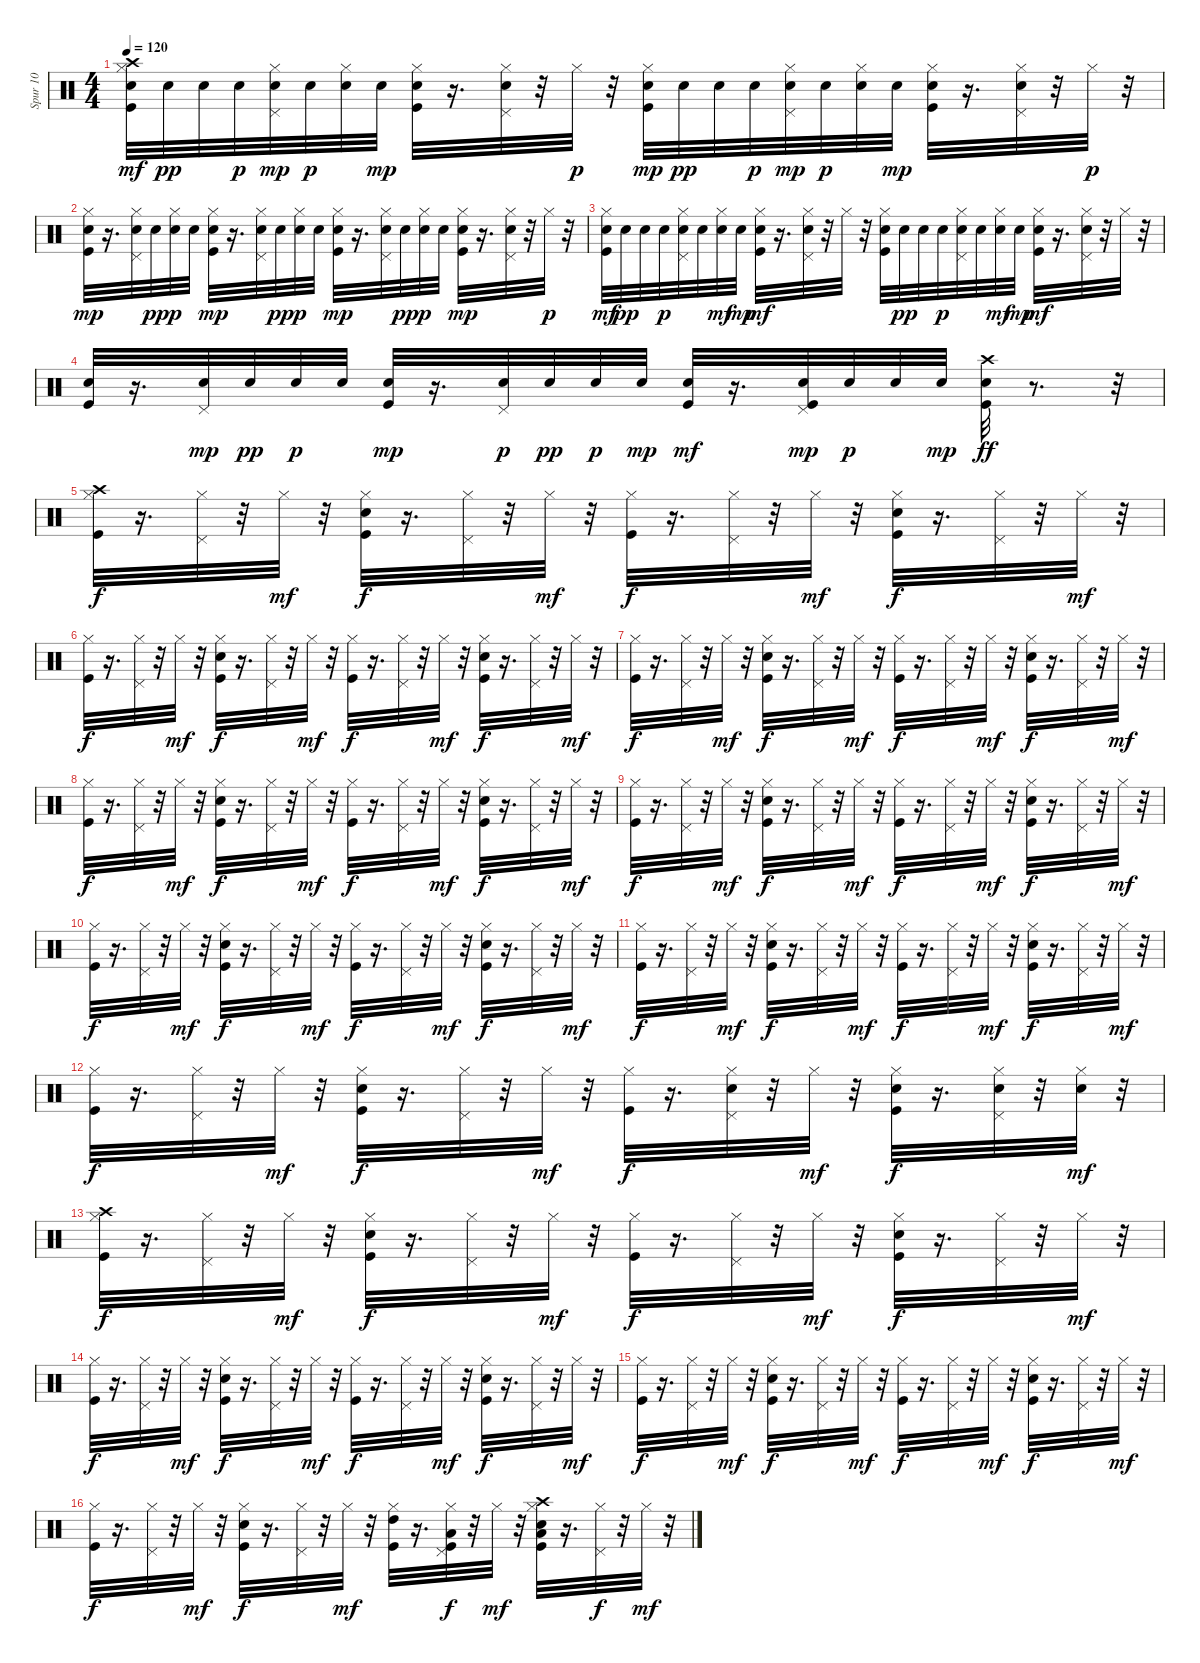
\track ("Spur 10" "Spur 10") {instrument percussion}
\staff {score}
\articulation defaults
\ts (4 4)
\tempo 120
\clef neutral
\ks c
("Kick (hit)" "Snare (hit) 2" "Hi-Hat (closed)" "Crash high (hit)").32{dy mf} "Snare (hit) 2".32{dy pp} "Snare (hit) 2".32 "Snare (hit) 2".32{dy p} ("Snare (hit) 2" "Hi-Hat (closed)" "Pedal Hi-Hat (hit)").32{dy mp} "Snare (hit) 2".32{dy p} ("Snare (hit) 2" "Hi-Hat (closed)").32 "Snare (hit) 2".32{dy mp} ("Kick (hit)" "Snare (hit) 2" "Hi-Hat (closed)").32 r.16{d} ("Snare (hit) 2" "Hi-Hat (closed)" "Pedal Hi-Hat (hit)").32 r.32 "Hi-Hat (closed)".32{dy p} r.32 ("Kick (hit)" "Snare (hit) 2" "Hi-Hat (closed)").32{dy mp} "Snare (hit) 2".32{dy pp} "Snare (hit) 2".32 "Snare (hit) 2".32{dy p} ("Snare (hit) 2" "Hi-Hat (closed)" "Pedal Hi-Hat (hit)").32{dy mp} "Snare (hit) 2".32{dy p} ("Snare (hit) 2" "Hi-Hat (closed)").32 "Snare (hit) 2".32{dy mp} ("Kick (hit)" "Snare (hit) 2" "Hi-Hat (closed)").32 r.16{d} ("Snare (hit) 2" "Hi-Hat (closed)" "Pedal Hi-Hat (hit)").32 r.32 "Hi-Hat (closed)".32{dy p} r.32 |
("Kick (hit)" "Snare (hit) 2" "Hi-Hat (closed)").32{dy mp} r.16{d} ("Snare (hit) 2" "Hi-Hat (closed)" "Pedal Hi-Hat (hit)").32 "Snare (hit) 2".32{dy pp} ("Snare (hit) 2" "Hi-Hat (closed)").32{dy p} "Snare (hit) 2".32 ("Kick (hit)" "Snare (hit) 2" "Hi-Hat (closed)").32{dy mp} r.16{d} ("Snare (hit) 2" "Hi-Hat (closed)" "Pedal Hi-Hat (hit)").32 "Snare (hit) 2".32{dy pp} ("Snare (hit) 2" "Hi-Hat (closed)").32{dy p} "Snare (hit) 2".32 ("Kick (hit)" "Snare (hit) 2" "Hi-Hat (closed)").32{dy mp} r.16{d} ("Snare (hit) 2" "Hi-Hat (closed)" "Pedal Hi-Hat (hit)").32 "Snare (hit) 2".32{dy pp} ("Snare (hit) 2" "Hi-Hat (closed)").32{dy p} "Snare (hit) 2".32 ("Kick (hit)" "Snare (hit) 2" "Hi-Hat (closed)").32{dy mp} r.16{d} ("Snare (hit) 2" "Hi-Hat (closed)" "Pedal Hi-Hat (hit)").32 r.32 "Hi-Hat (closed)".32{dy p} r.32 |
("Kick (hit)" "Snare (hit) 2" "Hi-Hat (closed)").32{dy mf} "Snare (hit) 2".32{dy pp} "Snare (hit) 2".32 "Snare (hit) 2".32{dy p} ("Snare (hit) 2" "Hi-Hat (closed)" "Pedal Hi-Hat (hit)").32 "Snare (hit) 2".32 ("Snare (hit) 2" "Hi-Hat (closed)").32{dy mf} "Snare (hit) 2".32{dy mp} ("Kick (hit)" "Snare (hit) 2" "Hi-Hat (closed)").32{dy mf} r.16{d} ("Snare (hit) 2" "Hi-Hat (closed)" "Pedal Hi-Hat (hit)").32 r.32 "Hi-Hat (closed)".32 r.32 ("Kick (hit)" "Snare (hit) 2" "Hi-Hat (closed)").32 "Snare (hit) 2".32{dy pp} "Snare (hit) 2".32 "Snare (hit) 2".32{dy p} ("Snare (hit) 2" "Hi-Hat (closed)" "Pedal Hi-Hat (hit)").32 "Snare (hit) 2".32 ("Snare (hit) 2" "Hi-Hat (closed)").32{dy mf} "Snare (hit) 2".32{dy mp} ("Kick (hit)" "Snare (hit) 2" "Hi-Hat (closed)").32{dy mf} r.16{d} ("Snare (hit) 2" "Hi-Hat (closed)" "Pedal Hi-Hat (hit)").32 r.32 "Hi-Hat (closed)".32 r.32 |
("Kick (hit)" "Snare (hit) 2").32 r.16{d} ("Snare (hit) 2" "Pedal Hi-Hat (hit)").32{dy mp} "Snare (hit) 2".32{dy pp} "Snare (hit) 2".32{dy p} "Snare (hit) 2".32 ("Kick (hit)" "Snare (hit) 2").32{dy mp} r.16{d} ("Snare (hit) 2" "Pedal Hi-Hat (hit)").32{dy p} "Snare (hit) 2".32{dy pp} "Snare (hit) 2".32{dy p} "Snare (hit) 2".32{dy mp} ("Kick (hit)" "Snare (hit) 2").32{dy mf} r.16{d} ("Kick (hit)" "Snare (hit) 2" "Pedal Hi-Hat (hit)").32{dy mp} "Snare (hit) 2".32{dy p} "Snare (hit) 2".32 "Snare (hit) 2".32{dy mp} ("Kick (hit)" "Snare (hit) 2" "Crash high (hit)").32{dy ff} r.8{d} r.32 |
("Kick (hit)" "Hi-Hat (closed)" "Crash high (hit)").32{dy f} r.16{d} ("Hi-Hat (closed)" "Pedal Hi-Hat (hit)").32 r.32 "Hi-Hat (closed)".32{dy mf} r.32 ("Kick (hit)" "Snare (hit) 2" "Hi-Hat (closed)").32{dy f} r.16{d} ("Hi-Hat (closed)" "Pedal Hi-Hat (hit)").32 r.32 "Hi-Hat (closed)".32{dy mf} r.32 ("Kick (hit)" "Hi-Hat (closed)").32{dy f} r.16{d} ("Hi-Hat (closed)" "Pedal Hi-Hat (hit)").32 r.32 "Hi-Hat (closed)".32{dy mf} r.32 ("Kick (hit)" "Snare (hit) 2" "Hi-Hat (closed)").32{dy f} r.16{d} ("Hi-Hat (closed)" "Pedal Hi-Hat (hit)").32 r.32 "Hi-Hat (closed)".32{dy mf} r.32 |
("Kick (hit)" "Hi-Hat (closed)").32{dy f} r.16{d} ("Hi-Hat (closed)" "Pedal Hi-Hat (hit)").32 r.32 "Hi-Hat (closed)".32{dy mf} r.32 ("Kick (hit)" "Snare (hit) 2" "Hi-Hat (closed)").32{dy f} r.16{d} ("Hi-Hat (closed)" "Pedal Hi-Hat (hit)").32 r.32 "Hi-Hat (closed)".32{dy mf} r.32 ("Kick (hit)" "Hi-Hat (closed)").32{dy f} r.16{d} ("Hi-Hat (closed)" "Pedal Hi-Hat (hit)").32 r.32 "Hi-Hat (closed)".32{dy mf} r.32 ("Kick (hit)" "Snare (hit) 2" "Hi-Hat (closed)").32{dy f} r.16{d} ("Hi-Hat (closed)" "Pedal Hi-Hat (hit)").32 r.32 "Hi-Hat (closed)".32{dy mf} r.32 |
("Kick (hit)" "Hi-Hat (closed)").32{dy f} r.16{d} ("Hi-Hat (closed)" "Pedal Hi-Hat (hit)").32 r.32 "Hi-Hat (closed)".32{dy mf} r.32 ("Kick (hit)" "Snare (hit) 2" "Hi-Hat (closed)").32{dy f} r.16{d} ("Hi-Hat (closed)" "Pedal Hi-Hat (hit)").32 r.32 "Hi-Hat (closed)".32{dy mf} r.32 ("Kick (hit)" "Hi-Hat (closed)").32{dy f} r.16{d} ("Hi-Hat (closed)" "Pedal Hi-Hat (hit)").32 r.32 "Hi-Hat (closed)".32{dy mf} r.32 ("Kick (hit)" "Snare (hit) 2" "Hi-Hat (closed)").32{dy f} r.16{d} ("Hi-Hat (closed)" "Pedal Hi-Hat (hit)").32 r.32 "Hi-Hat (closed)".32{dy mf} r.32 |
("Kick (hit)" "Hi-Hat (closed)").32{dy f} r.16{d} ("Hi-Hat (closed)" "Pedal Hi-Hat (hit)").32 r.32 "Hi-Hat (closed)".32{dy mf} r.32 ("Kick (hit)" "Snare (hit) 2" "Hi-Hat (closed)").32{dy f} r.16{d} ("Hi-Hat (closed)" "Pedal Hi-Hat (hit)").32 r.32 "Hi-Hat (closed)".32{dy mf} r.32 ("Kick (hit)" "Hi-Hat (closed)").32{dy f} r.16{d} ("Hi-Hat (closed)" "Pedal Hi-Hat (hit)").32 r.32 "Hi-Hat (closed)".32{dy mf} r.32 ("Kick (hit)" "Snare (hit) 2" "Hi-Hat (closed)").32{dy f} r.16{d} ("Hi-Hat (closed)" "Pedal Hi-Hat (hit)").32 r.32 "Hi-Hat (closed)".32{dy mf} r.32 |
("Kick (hit)" "Hi-Hat (closed)").32{dy f} r.16{d} ("Hi-Hat (closed)" "Pedal Hi-Hat (hit)").32 r.32 "Hi-Hat (closed)".32{dy mf} r.32 ("Kick (hit)" "Snare (hit) 2" "Hi-Hat (closed)").32{dy f} r.16{d} ("Hi-Hat (closed)" "Pedal Hi-Hat (hit)").32 r.32 "Hi-Hat (closed)".32{dy mf} r.32 ("Kick (hit)" "Hi-Hat (closed)").32{dy f} r.16{d} ("Hi-Hat (closed)" "Pedal Hi-Hat (hit)").32 r.32 "Hi-Hat (closed)".32{dy mf} r.32 ("Kick (hit)" "Snare (hit) 2" "Hi-Hat (closed)").32{dy f} r.16{d} ("Hi-Hat (closed)" "Pedal Hi-Hat (hit)").32 r.32 "Hi-Hat (closed)".32{dy mf} r.32 |
("Kick (hit)" "Hi-Hat (closed)").32{dy f} r.16{d} ("Hi-Hat (closed)" "Pedal Hi-Hat (hit)").32 r.32 "Hi-Hat (closed)".32{dy mf} r.32 ("Kick (hit)" "Snare (hit) 2" "Hi-Hat (closed)").32{dy f} r.16{d} ("Hi-Hat (closed)" "Pedal Hi-Hat (hit)").32 r.32 "Hi-Hat (closed)".32{dy mf} r.32 ("Kick (hit)" "Hi-Hat (closed)").32{dy f} r.16{d} ("Hi-Hat (closed)" "Pedal Hi-Hat (hit)").32 r.32 "Hi-Hat (closed)".32{dy mf} r.32 ("Kick (hit)" "Snare (hit) 2" "Hi-Hat (closed)").32{dy f} r.16{d} ("Hi-Hat (closed)" "Pedal Hi-Hat (hit)").32 r.32 "Hi-Hat (closed)".32{dy mf} r.32 |
("Kick (hit)" "Hi-Hat (closed)").32{dy f} r.16{d} ("Hi-Hat (closed)" "Pedal Hi-Hat (hit)").32 r.32 "Hi-Hat (closed)".32{dy mf} r.32 ("Kick (hit)" "Snare (hit) 2" "Hi-Hat (closed)").32{dy f} r.16{d} ("Hi-Hat (closed)" "Pedal Hi-Hat (hit)").32 r.32 "Hi-Hat (closed)".32{dy mf} r.32 ("Kick (hit)" "Hi-Hat (closed)").32{dy f} r.16{d} ("Hi-Hat (closed)" "Pedal Hi-Hat (hit)").32 r.32 "Hi-Hat (closed)".32{dy mf} r.32 ("Kick (hit)" "Snare (hit) 2" "Hi-Hat (closed)").32{dy f} r.16{d} ("Hi-Hat (closed)" "Pedal Hi-Hat (hit)").32 r.32 "Hi-Hat (closed)".32{dy mf} r.32 |
("Kick (hit)" "Hi-Hat (closed)").32{dy f} r.16{d} ("Hi-Hat (closed)" "Pedal Hi-Hat (hit)").32 r.32 "Hi-Hat (closed)".32{dy mf} r.32 ("Kick (hit)" "Snare (hit) 2" "Hi-Hat (closed)").32{dy f} r.16{d} ("Hi-Hat (closed)" "Pedal Hi-Hat (hit)").32 r.32 "Hi-Hat (closed)".32{dy mf} r.32 ("Kick (hit)" "Hi-Hat (closed)").32{dy f} r.16{d} ("Snare (hit) 2" "Hi-Hat (closed)" "Pedal Hi-Hat (hit)").32 r.32 "Hi-Hat (closed)".32{dy mf} r.32 ("Kick (hit)" "Snare (hit) 2" "Hi-Hat (closed)").32{dy f} r.16{d} ("Snare (hit) 2" "Hi-Hat (closed)" "Pedal Hi-Hat (hit)").32 r.32 ("Snare (hit) 2" "Hi-Hat (closed)").32{dy mf} r.32 |
("Kick (hit)" "Hi-Hat (closed)" "Crash high (hit)").32{dy f} r.16{d} ("Hi-Hat (closed)" "Pedal Hi-Hat (hit)").32 r.32 "Hi-Hat (closed)".32{dy mf} r.32 ("Kick (hit)" "Snare (hit) 2" "Hi-Hat (closed)").32{dy f} r.16{d} ("Hi-Hat (closed)" "Pedal Hi-Hat (hit)").32 r.32 "Hi-Hat (closed)".32{dy mf} r.32 ("Kick (hit)" "Hi-Hat (closed)").32{dy f} r.16{d} ("Hi-Hat (closed)" "Pedal Hi-Hat (hit)").32 r.32 "Hi-Hat (closed)".32{dy mf} r.32 ("Kick (hit)" "Snare (hit) 2" "Hi-Hat (closed)").32{dy f} r.16{d} ("Hi-Hat (closed)" "Pedal Hi-Hat (hit)").32 r.32 "Hi-Hat (closed)".32{dy mf} r.32 |
("Kick (hit)" "Hi-Hat (closed)").32{dy f} r.16{d} ("Hi-Hat (closed)" "Pedal Hi-Hat (hit)").32 r.32 "Hi-Hat (closed)".32{dy mf} r.32 ("Kick (hit)" "Snare (hit) 2" "Hi-Hat (closed)").32{dy f} r.16{d} ("Hi-Hat (closed)" "Pedal Hi-Hat (hit)").32 r.32 "Hi-Hat (closed)".32{dy mf} r.32 ("Kick (hit)" "Hi-Hat (closed)").32{dy f} r.16{d} ("Hi-Hat (closed)" "Pedal Hi-Hat (hit)").32 r.32 "Hi-Hat (closed)".32{dy mf} r.32 ("Kick (hit)" "Snare (hit) 2" "Hi-Hat (closed)").32{dy f} r.16{d} ("Hi-Hat (closed)" "Pedal Hi-Hat (hit)").32 r.32 "Hi-Hat (closed)".32{dy mf} r.32 |
("Kick (hit)" "Hi-Hat (closed)").32{dy f} r.16{d} ("Hi-Hat (closed)" "Pedal Hi-Hat (hit)").32 r.32 "Hi-Hat (closed)".32{dy mf} r.32 ("Kick (hit)" "Snare (hit) 2" "Hi-Hat (closed)").32{dy f} r.16{d} ("Hi-Hat (closed)" "Pedal Hi-Hat (hit)").32 r.32 "Hi-Hat (closed)".32{dy mf} r.32 ("Kick (hit)" "Hi-Hat (closed)").32{dy f} r.16{d} ("Hi-Hat (closed)" "Pedal Hi-Hat (hit)").32 r.32 "Hi-Hat (closed)".32{dy mf} r.32 ("Kick (hit)" "Snare (hit) 2" "Hi-Hat (closed)").32{dy f} r.16{d} ("Hi-Hat (closed)" "Pedal Hi-Hat (hit)").32 r.32 "Hi-Hat (closed)".32{dy mf} r.32 |
("Kick (hit)" "Hi-Hat (closed)").32{dy f} r.16{d} ("Hi-Hat (closed)" "Pedal Hi-Hat (hit)").32 r.32 "Hi-Hat (closed)".32{dy mf} r.32 ("Kick (hit)" "Snare (hit) 2" "Hi-Hat (closed)").32{dy f} r.16{d} ("Hi-Hat (closed)" "Pedal Hi-Hat (hit)").32 r.32 "Hi-Hat (closed)".32{dy mf} r.32 ("Kick (hit)" "Hi-Hat (closed)" "High Tom (hit)").32 r.16{d} ("Kick (hit)" "Hi-Hat (closed)" "Pedal Hi-Hat (hit)" "Low Tom (hit)").32{dy f} r.32 "Hi-Hat (closed)".32{dy mf} r.32 ("Kick (hit)" "Electric Snare (hit)" "Hi-Hat (closed)" "Crash high (hit)" "Low Floor Tom (hit)").32 r.16{d} ("Hi-Hat (closed)" "Pedal Hi-Hat (hit)").32{dy f} r.32 "Hi-Hat (closed)".32{dy mf} r.32
